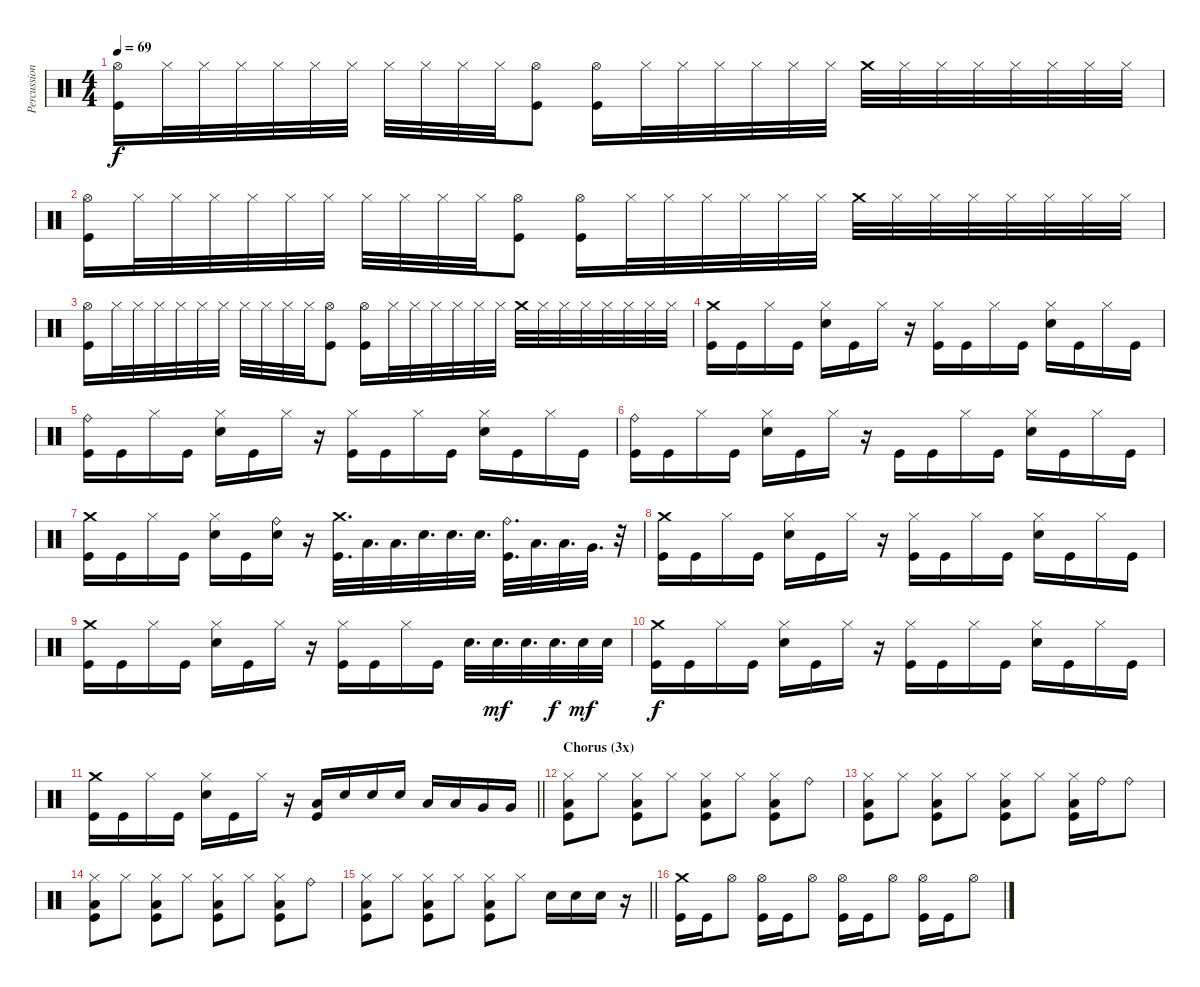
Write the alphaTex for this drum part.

\track ("Percussion" "Percussion") {instrument percussion}
\staff {score}
\articulation defaults
\ts (4 4)
\tempo 69
\clef neutral
\ks c
("Hi-Hat (open)" "Kick (hit)").16{dy f} "Hi-Hat (closed)".32 "Hi-Hat (closed)".32 "Hi-Hat (closed)".32 "Hi-Hat (closed)".32 "Hi-Hat (closed)".32 "Hi-Hat (closed)".32 "Hi-Hat (closed)".32 "Hi-Hat (closed)".32 "Hi-Hat (closed)".32 "Hi-Hat (closed)".32 ("Hi-Hat (open)" "Kick (hit)").8 ("Hi-Hat (open)" "Kick (hit)").16 "Hi-Hat (closed)".32 "Hi-Hat (closed)".32 "Hi-Hat (closed)".32 "Hi-Hat (closed)".32 "Hi-Hat (closed)".32 "Hi-Hat (closed)".32 "Crash medium (hit)".32 "Hi-Hat (closed)".32 "Hi-Hat (closed)".32 "Hi-Hat (closed)".32 "Hi-Hat (closed)".32 "Hi-Hat (closed)".32 "Hi-Hat (closed)".32 "Hi-Hat (closed)".32 |
("Hi-Hat (open)" "Kick (hit)").16 "Hi-Hat (closed)".32 "Hi-Hat (closed)".32 "Hi-Hat (closed)".32 "Hi-Hat (closed)".32 "Hi-Hat (closed)".32 "Hi-Hat (closed)".32 "Hi-Hat (closed)".32 "Hi-Hat (closed)".32 "Hi-Hat (closed)".32 "Hi-Hat (closed)".32 ("Hi-Hat (open)" "Kick (hit)").8 ("Hi-Hat (open)" "Kick (hit)").16 "Hi-Hat (closed)".32 "Hi-Hat (closed)".32 "Hi-Hat (closed)".32 "Hi-Hat (closed)".32 "Hi-Hat (closed)".32 "Hi-Hat (closed)".32 "Crash medium (hit)".32 "Hi-Hat (closed)".32 "Hi-Hat (closed)".32 "Hi-Hat (closed)".32 "Hi-Hat (closed)".32 "Hi-Hat (closed)".32 "Hi-Hat (closed)".32 "Hi-Hat (closed)".32 |
("Hi-Hat (open)" "Kick (hit)").16 "Hi-Hat (closed)".32 "Hi-Hat (closed)".32 "Hi-Hat (closed)".32 "Hi-Hat (closed)".32 "Hi-Hat (closed)".32 "Hi-Hat (closed)".32 "Hi-Hat (closed)".32 "Hi-Hat (closed)".32 "Hi-Hat (closed)".32 "Hi-Hat (closed)".32 ("Hi-Hat (open)" "Kick (hit)").8 ("Hi-Hat (open)" "Kick (hit)").16 "Hi-Hat (closed)".32 "Hi-Hat (closed)".32 "Hi-Hat (closed)".32 "Hi-Hat (closed)".32 "Hi-Hat (closed)".32 "Hi-Hat (closed)".32 "Crash medium (hit)".32 "Hi-Hat (closed)".32 "Hi-Hat (closed)".32 "Hi-Hat (closed)".32 "Hi-Hat (closed)".32 "Hi-Hat (closed)".32 "Hi-Hat (closed)".32 "Hi-Hat (closed)".32 |
("Crash medium (hit)" "Kick (hit)").16 "Kick (hit)".16 "Hi-Hat (closed)".16 "Kick (hit)".16 ("Hi-Hat (closed)" "Electric Snare (hit)").16 "Kick (hit)".16 "Hi-Hat (closed)".16 r.16 ("Hi-Hat (closed)" "Kick (hit)").16 "Kick (hit)".16 "Hi-Hat (closed)".16 "Kick (hit)".16 ("Hi-Hat (closed)" "Electric Snare (hit)").16 "Kick (hit)".16 "Hi-Hat (closed)".16 "Kick (hit)".16 |
("Ride (bell)" "Kick (hit)").16 "Kick (hit)".16 "Hi-Hat (closed)".16 "Kick (hit)".16 ("Hi-Hat (closed)" "Electric Snare (hit)").16 "Kick (hit)".16 "Hi-Hat (closed)".16 r.16 ("Hi-Hat (closed)" "Kick (hit)").16 "Kick (hit)".16 "Hi-Hat (closed)".16 "Kick (hit)".16 ("Hi-Hat (closed)" "Electric Snare (hit)").16 "Kick (hit)".16 "Hi-Hat (closed)".16 "Kick (hit)".16 |
("Ride (bell)" "Kick (hit)").16 "Kick (hit)".16 "Hi-Hat (closed)".16 "Kick (hit)".16 ("Hi-Hat (closed)" "Electric Snare (hit)").16 "Kick (hit)".16 "Hi-Hat (closed)".16 r.16 "Kick (hit)".16 "Kick (hit)".16 "Hi-Hat (closed)".16 "Kick (hit)".16 ("Hi-Hat (closed)" "Electric Snare (hit)").16 "Kick (hit)".16 "Hi-Hat (closed)".16 "Kick (hit)".16 |
("Crash medium (hit)" "Kick (hit)").16 "Kick (hit)".16 "Hi-Hat (closed)".16 "Kick (hit)".16 ("Hi-Hat (closed)" "Electric Snare (hit)").16 "Kick (hit)".16 ("Ride (bell)" "Electric Snare (hit)").16 r.16 ("Crash medium (hit)" "Kick (hit)").32{d} "Low Tom (hit)".32{d} "Low Tom (hit)".32{d} "Electric Snare (hit)".32{d} "Electric Snare (hit)".32{d} "Electric Snare (hit)".32{d} ("Ride (bell)" "Kick (hit)").32{d} "Low Tom (hit)".32{d} "Low Tom (hit)".32{d} "Very Low Tom (hit)".32{d} r.32 |
("Crash medium (hit)" "Kick (hit)").16 "Kick (hit)".16 "Hi-Hat (closed)".16 "Kick (hit)".16 ("Hi-Hat (closed)" "Electric Snare (hit)").16 "Kick (hit)".16 "Hi-Hat (closed)".16 r.16 ("Hi-Hat (closed)" "Kick (hit)").16 "Kick (hit)".16 "Hi-Hat (closed)".16 "Kick (hit)".16 ("Hi-Hat (closed)" "Electric Snare (hit)").16 "Kick (hit)".16 "Hi-Hat (closed)".16 "Kick (hit)".16 |
("Crash medium (hit)" "Kick (hit)").16 "Kick (hit)".16 "Hi-Hat (closed)".16 "Kick (hit)".16 ("Hi-Hat (closed)" "Electric Snare (hit)").16 "Kick (hit)".16 "Hi-Hat (closed)".16 r.16 ("Hi-Hat (closed)" "Kick (hit)").16 "Kick (hit)".16 "Hi-Hat (closed)".16 "Kick (hit)".16 "Electric Snare (hit)".32{d} "Electric Snare (hit)".32{d dy mf} "Electric Snare (hit)".32{d} "Electric Snare (hit)".32{d dy f} "Electric Snare (hit)".32{dy mf} "Electric Snare (hit)".32 |
("Crash medium (hit)" "Kick (hit)").16{dy f} "Kick (hit)".16 "Hi-Hat (closed)".16 "Kick (hit)".16 ("Hi-Hat (closed)" "Electric Snare (hit)").16 "Kick (hit)".16 "Hi-Hat (closed)".16 r.16 ("Hi-Hat (closed)" "Kick (hit)").16 "Kick (hit)".16 "Hi-Hat (closed)".16 "Kick (hit)".16 ("Hi-Hat (closed)" "Electric Snare (hit)").16 "Kick (hit)".16 "Hi-Hat (closed)".16 "Kick (hit)".16 |
\barLineRight lightlight
("Crash medium (hit)" "Kick (hit)").16 "Kick (hit)".16 "Hi-Hat (closed)".16 "Kick (hit)".16 ("Hi-Hat (closed)" "Electric Snare (hit)").16 "Kick (hit)".16 "Hi-Hat (closed)".16 r.16 ("Low Tom (hit)" "Kick (hit)").16 "Electric Snare (hit)".16 "Electric Snare (hit)".16 "Electric Snare (hit)".16 "Low Tom (hit)".16 "Low Tom (hit)".16 "Very Low Tom (hit)".16 "Very Low Tom (hit)".16 |
\section ("" "Chorus (3x)")
("Hi-Hat (closed)" "Low Tom (hit)" "Kick (hit)").8 "Hi-Hat (closed)".8 ("Hi-Hat (closed)" "Low Tom (hit)" "Kick (hit)").8 "Hi-Hat (closed)".8 ("Hi-Hat (closed)" "Low Tom (hit)" "Kick (hit)").8 "Hi-Hat (closed)".8 ("Hi-Hat (closed)" "Low Tom (hit)" "Kick (hit)").8 "Ride (bell)".8 |
("Hi-Hat (closed)" "Low Tom (hit)" "Kick (hit)").8 "Hi-Hat (closed)".8 ("Hi-Hat (closed)" "Low Tom (hit)" "Kick (hit)").8 "Hi-Hat (closed)".8 ("Hi-Hat (closed)" "Low Tom (hit)" "Kick (hit)").8 "Hi-Hat (closed)".8 ("Hi-Hat (closed)" "Low Tom (hit)" "Kick (hit)").16 "Ride (bell)".16 "Ride (bell)".8 |
("Hi-Hat (closed)" "Low Tom (hit)" "Kick (hit)").8 "Hi-Hat (closed)".8 ("Hi-Hat (closed)" "Low Tom (hit)" "Kick (hit)").8 "Hi-Hat (closed)".8 ("Hi-Hat (closed)" "Low Tom (hit)" "Kick (hit)").8 "Hi-Hat (closed)".8 ("Hi-Hat (closed)" "Low Tom (hit)" "Kick (hit)").8 "Ride (bell)".8 |
\barLineRight lightlight
("Hi-Hat (closed)" "Low Tom (hit)" "Kick (hit)").8 "Hi-Hat (closed)".8 ("Hi-Hat (closed)" "Low Tom (hit)" "Kick (hit)").8 "Hi-Hat (closed)".8 ("Hi-Hat (closed)" "Low Tom (hit)" "Kick (hit)").8 "Hi-Hat (closed)".8 "Electric Snare (hit)".16 "Electric Snare (hit)".16 "Electric Snare (hit)".16 r.16 |
("Crash medium (hit)" "Kick (hit)").16 "Kick (hit)".16 "Hi-Hat (open)".8 ("Hi-Hat (open)" "Kick (hit)").16 "Kick (hit)".16 "Hi-Hat (open)".8 ("Hi-Hat (open)" "Kick (hit)").16 "Kick (hit)".16 "Hi-Hat (open)".8 ("Hi-Hat (open)" "Kick (hit)").16 "Kick (hit)".16 "Hi-Hat (open)".8
